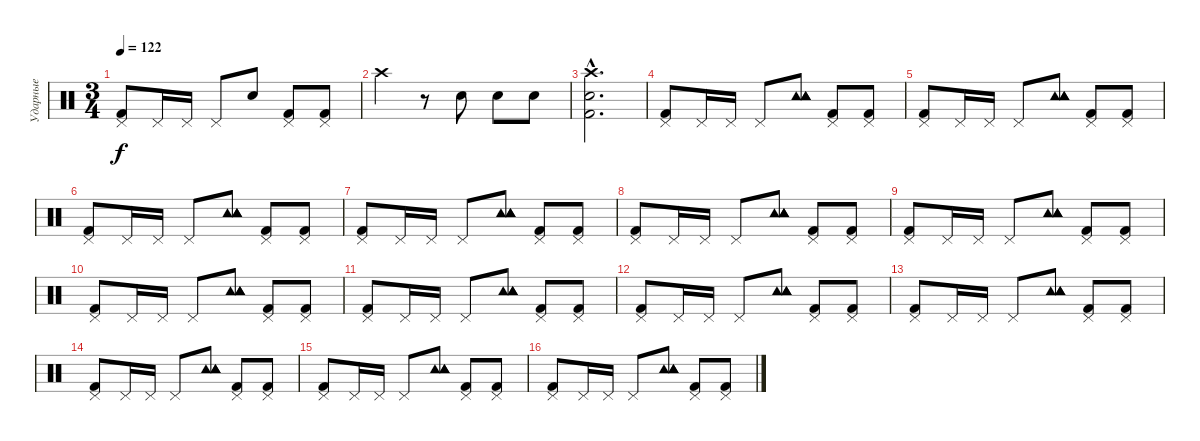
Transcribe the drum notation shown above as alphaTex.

\track ("Ударные" "Ударные") {instrument percussion}
\staff {score}
\articulation defaults
\ts (3 4)
\tempo 122
\clef neutral
\ks c
("Kick (hit) 2" "Pedal Hi-Hat (hit)").8{dy f} "Pedal Hi-Hat (hit)".16 "Pedal Hi-Hat (hit)".16 "Pedal Hi-Hat (hit)".8 "Electric Snare (hit)".8 ("Kick (hit) 2" "Pedal Hi-Hat (hit)").8 ("Kick (hit) 2" "Pedal Hi-Hat (hit)").8 |
"Crash high (hit)".4 r.8 "Electric Snare (hit)".8 "Electric Snare (hit)".8 "Electric Snare (hit)".8 |
("Kick (hit) 2"{hac} "Crash high (hit)"{hac} "Electric Snare (hit)"{hac}).2{d} |
("Kick (hit) 2" "Pedal Hi-Hat (hit)").8 "Pedal Hi-Hat (hit)".16 "Pedal Hi-Hat (hit)".16 "Pedal Hi-Hat (hit)".8 ("Tambourine (hit)" "Tambourine (hit)" "Tambourine (hit)" "Tambourine (hit)").8 ("Kick (hit) 2" "Pedal Hi-Hat (hit)").8 ("Kick (hit) 2" "Pedal Hi-Hat (hit)").8 |
("Kick (hit) 2" "Pedal Hi-Hat (hit)").8 "Pedal Hi-Hat (hit)".16 "Pedal Hi-Hat (hit)".16 "Pedal Hi-Hat (hit)".8 ("Tambourine (hit)" "Tambourine (hit)" "Tambourine (hit)" "Tambourine (hit)").8 ("Kick (hit) 2" "Pedal Hi-Hat (hit)").8 ("Kick (hit) 2" "Pedal Hi-Hat (hit)").8 |
("Kick (hit) 2" "Pedal Hi-Hat (hit)").8 "Pedal Hi-Hat (hit)".16 "Pedal Hi-Hat (hit)".16 "Pedal Hi-Hat (hit)".8 ("Tambourine (hit)" "Tambourine (hit)" "Tambourine (hit)" "Tambourine (hit)").8 ("Kick (hit) 2" "Pedal Hi-Hat (hit)").8 ("Kick (hit) 2" "Pedal Hi-Hat (hit)").8 |
("Kick (hit) 2" "Pedal Hi-Hat (hit)").8 "Pedal Hi-Hat (hit)".16 "Pedal Hi-Hat (hit)".16 "Pedal Hi-Hat (hit)".8 ("Tambourine (hit)" "Tambourine (hit)" "Tambourine (hit)" "Tambourine (hit)").8 ("Kick (hit) 2" "Pedal Hi-Hat (hit)").8 ("Kick (hit) 2" "Pedal Hi-Hat (hit)").8 |
("Kick (hit) 2" "Pedal Hi-Hat (hit)").8 "Pedal Hi-Hat (hit)".16 "Pedal Hi-Hat (hit)".16 "Pedal Hi-Hat (hit)".8 ("Tambourine (hit)" "Tambourine (hit)" "Tambourine (hit)" "Tambourine (hit)").8 ("Kick (hit) 2" "Pedal Hi-Hat (hit)").8 ("Kick (hit) 2" "Pedal Hi-Hat (hit)").8 |
("Kick (hit) 2" "Pedal Hi-Hat (hit)").8 "Pedal Hi-Hat (hit)".16 "Pedal Hi-Hat (hit)".16 "Pedal Hi-Hat (hit)".8 ("Tambourine (hit)" "Tambourine (hit)" "Tambourine (hit)" "Tambourine (hit)").8 ("Kick (hit) 2" "Pedal Hi-Hat (hit)").8 ("Kick (hit) 2" "Pedal Hi-Hat (hit)").8 |
("Kick (hit) 2" "Pedal Hi-Hat (hit)").8 "Pedal Hi-Hat (hit)".16 "Pedal Hi-Hat (hit)".16 "Pedal Hi-Hat (hit)".8 ("Tambourine (hit)" "Tambourine (hit)" "Tambourine (hit)" "Tambourine (hit)").8 ("Kick (hit) 2" "Pedal Hi-Hat (hit)").8 ("Kick (hit) 2" "Pedal Hi-Hat (hit)").8 |
("Kick (hit) 2" "Pedal Hi-Hat (hit)").8 "Pedal Hi-Hat (hit)".16 "Pedal Hi-Hat (hit)".16 "Pedal Hi-Hat (hit)".8 ("Tambourine (hit)" "Tambourine (hit)" "Tambourine (hit)" "Tambourine (hit)").8 ("Kick (hit) 2" "Pedal Hi-Hat (hit)").8 ("Kick (hit) 2" "Pedal Hi-Hat (hit)").8 |
("Kick (hit) 2" "Pedal Hi-Hat (hit)").8 "Pedal Hi-Hat (hit)".16 "Pedal Hi-Hat (hit)".16 "Pedal Hi-Hat (hit)".8 ("Tambourine (hit)" "Tambourine (hit)" "Tambourine (hit)" "Tambourine (hit)").8 ("Kick (hit) 2" "Pedal Hi-Hat (hit)").8 ("Kick (hit) 2" "Pedal Hi-Hat (hit)").8 |
("Kick (hit) 2" "Pedal Hi-Hat (hit)").8 "Pedal Hi-Hat (hit)".16 "Pedal Hi-Hat (hit)".16 "Pedal Hi-Hat (hit)".8 ("Tambourine (hit)" "Tambourine (hit)" "Tambourine (hit)" "Tambourine (hit)").8 ("Kick (hit) 2" "Pedal Hi-Hat (hit)").8 ("Kick (hit) 2" "Pedal Hi-Hat (hit)").8 |
("Kick (hit) 2" "Pedal Hi-Hat (hit)").8 "Pedal Hi-Hat (hit)".16 "Pedal Hi-Hat (hit)".16 "Pedal Hi-Hat (hit)".8 ("Tambourine (hit)" "Tambourine (hit)" "Tambourine (hit)" "Tambourine (hit)").8 ("Kick (hit) 2" "Pedal Hi-Hat (hit)").8 ("Kick (hit) 2" "Pedal Hi-Hat (hit)").8 |
("Kick (hit) 2" "Pedal Hi-Hat (hit)").8 "Pedal Hi-Hat (hit)".16 "Pedal Hi-Hat (hit)".16 "Pedal Hi-Hat (hit)".8 ("Tambourine (hit)" "Tambourine (hit)" "Tambourine (hit)" "Tambourine (hit)").8 ("Kick (hit) 2" "Pedal Hi-Hat (hit)").8 ("Kick (hit) 2" "Pedal Hi-Hat (hit)").8 |
("Kick (hit) 2" "Pedal Hi-Hat (hit)").8 "Pedal Hi-Hat (hit)".16 "Pedal Hi-Hat (hit)".16 "Pedal Hi-Hat (hit)".8 ("Tambourine (hit)" "Tambourine (hit)" "Tambourine (hit)" "Tambourine (hit)").8 ("Kick (hit) 2" "Pedal Hi-Hat (hit)").8 ("Kick (hit) 2" "Pedal Hi-Hat (hit)").8
